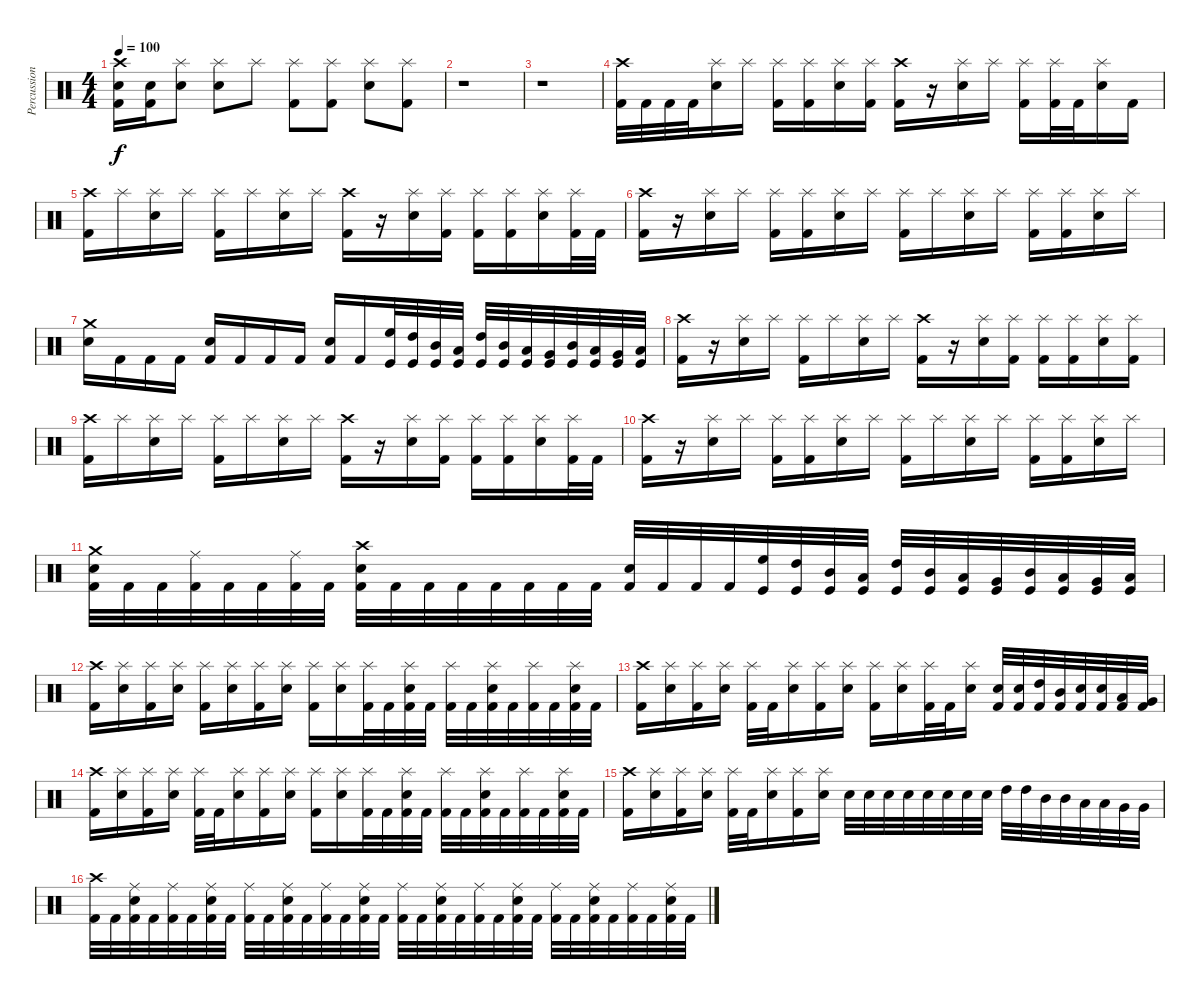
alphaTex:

\track ("Percussion" "Percussion") {instrument percussion}
\staff {score}
\articulation defaults
\ts (4 4)
\tempo 100
\clef neutral
\ks c
("Crash high (hit)" "Electric Snare (hit)" "Kick (hit) 2").16{dy f} ("Electric Snare (hit)" "Kick (hit) 2").16 ("Splash (hit)" "Electric Snare (hit)").8 ("Splash (hit)" "Electric Snare (hit)").8 "Splash (hit)".8 ("Splash (hit)" "Kick (hit) 2").8 ("Splash (hit)" "Kick (hit) 2").8 ("Splash (hit)" "Electric Snare (hit)").8 ("Splash (hit)" "Kick (hit) 2").8 |
r.1 |
r.1 |
("Kick (hit) 2" "Crash high (hit)").32 "Kick (hit) 2".32 "Kick (hit) 2".32 "Kick (hit) 2".32 ("Electric Snare (hit)" "Splash (hit)").16 "Splash (hit)".16 ("Kick (hit) 2" "Splash (hit)").16 ("Kick (hit) 2" "Splash (hit)").16 ("Electric Snare (hit)" "Splash (hit)").16 ("Kick (hit) 2" "Splash (hit)").16 ("Kick (hit) 2" "Crash high (hit)").16 r.16 ("Electric Snare (hit)" "Splash (hit)").16 "Splash (hit)".16 ("Kick (hit) 2" "Splash (hit)").16 ("Kick (hit) 2" "Splash (hit)").32 "Kick (hit) 2".32 ("Electric Snare (hit)" "Splash (hit)").16 "Kick (hit) 2".16 |
("Kick (hit) 2" "Crash high (hit)").16 "Splash (hit)".16 ("Electric Snare (hit)" "Splash (hit)").16 "Splash (hit)".16 ("Kick (hit) 2" "Splash (hit)").16 "Splash (hit)".16 ("Electric Snare (hit)" "Splash (hit)").16 "Splash (hit)".16 ("Kick (hit) 2" "Crash high (hit)").16 r.16 ("Electric Snare (hit)" "Splash (hit)").16 ("Kick (hit) 2" "Splash (hit)").16 ("Kick (hit) 2" "Splash (hit)").16 ("Kick (hit) 2" "Splash (hit)").16 ("Electric Snare (hit)" "Splash (hit)").16 ("Kick (hit) 2" "Splash (hit)").32 "Kick (hit) 2".32 |
("Kick (hit) 2" "Crash high (hit)").16 r.16 ("Electric Snare (hit)" "Splash (hit)").16 "Splash (hit)".16 ("Kick (hit) 2" "Splash (hit)").16 ("Kick (hit) 2" "Splash (hit)").16 ("Electric Snare (hit)" "Splash (hit)").16 "Splash (hit)".16 ("Kick (hit) 2" "Splash (hit)").16 "Splash (hit)".16 ("Electric Snare (hit)" "Splash (hit)").16 "Splash (hit)".16 ("Kick (hit) 2" "Splash (hit)").16 ("Kick (hit) 2" "Splash (hit)").16 ("Electric Snare (hit)" "Splash (hit)").16 "Splash (hit)".16 |
("Electric Snare (hit)" "Crash medium (hit)").16 "Kick (hit) 2".16 "Kick (hit) 2".16 "Kick (hit) 2".16 ("Electric Snare (hit)" "Kick (hit) 2").16 "Kick (hit) 2".16 "Kick (hit) 2".16 "Kick (hit) 2".16 ("Electric Snare (hit)" "Kick (hit) 2").16 "Kick (hit) 2".16 ("High Floor Tom (hit)" "Kick (hit)").32 ("High Tom (hit)" "Kick (hit)").32 ("Mid Tom (hit)" "Kick (hit)").32 ("Low Tom (hit)" "Kick (hit)").32 ("High Tom (hit)" "Kick (hit)").32 ("Mid Tom (hit)" "Kick (hit)").32 ("Low Tom (hit)" "Kick (hit)").32 ("Very Low Tom (hit)" "Kick (hit)").32 ("Mid Tom (hit)" "Kick (hit)").32 ("Low Tom (hit)" "Kick (hit)").32 ("Very Low Tom (hit)" "Kick (hit)").32 ("Low Floor Tom (hit)" "Kick (hit)").32 |
("Kick (hit) 2" "Crash high (hit)").16 r.16 ("Electric Snare (hit)" "Splash (hit)").16 "Splash (hit)".16 ("Kick (hit) 2" "Splash (hit)").16 "Splash (hit)".16 ("Electric Snare (hit)" "Splash (hit)").16 "Splash (hit)".16 ("Kick (hit) 2" "Crash high (hit)").16 r.16 ("Electric Snare (hit)" "Splash (hit)").16 ("Kick (hit) 2" "Splash (hit)").16 ("Kick (hit) 2" "Splash (hit)").16 ("Kick (hit) 2" "Splash (hit)").16 ("Electric Snare (hit)" "Splash (hit)").16 ("Kick (hit) 2" "Splash (hit)").16 |
("Kick (hit) 2" "Crash high (hit)").16 "Splash (hit)".16 ("Electric Snare (hit)" "Splash (hit)").16 "Splash (hit)".16 ("Kick (hit) 2" "Splash (hit)").16 "Splash (hit)".16 ("Electric Snare (hit)" "Splash (hit)").16 "Splash (hit)".16 ("Kick (hit) 2" "Crash high (hit)").16 r.16 ("Electric Snare (hit)" "Splash (hit)").16 ("Kick (hit) 2" "Splash (hit)").16 ("Kick (hit) 2" "Splash (hit)").16 ("Kick (hit) 2" "Splash (hit)").16 ("Electric Snare (hit)" "Splash (hit)").16 ("Kick (hit) 2" "Splash (hit)").32 "Kick (hit) 2".32 |
("Kick (hit) 2" "Crash high (hit)").16 r.16 ("Electric Snare (hit)" "Splash (hit)").16 "Splash (hit)".16 ("Kick (hit) 2" "Splash (hit)").16 ("Kick (hit) 2" "Splash (hit)").16 ("Electric Snare (hit)" "Splash (hit)").16 "Splash (hit)".16 ("Kick (hit) 2" "Splash (hit)").16 "Splash (hit)".16 ("Electric Snare (hit)" "Splash (hit)").16 "Splash (hit)".16 ("Kick (hit) 2" "Splash (hit)").16 ("Kick (hit) 2" "Splash (hit)").16 ("Electric Snare (hit)" "Splash (hit)").16 "Splash (hit)".16 |
("Crash medium (hit)" "Electric Snare (hit)" "Kick (hit) 2").32 "Kick (hit) 2".32 "Kick (hit) 2".32 ("Ride (middle)" "Kick (hit) 2").32 "Kick (hit) 2".32 "Kick (hit) 2".32 ("Ride (middle)" "Kick (hit) 2").32 "Kick (hit) 2".32 ("Crash high (hit)" "Electric Snare (hit)" "Kick (hit) 2").32 "Kick (hit) 2".32 "Kick (hit) 2".32 "Kick (hit) 2".32 "Kick (hit) 2".32 "Kick (hit) 2".32 "Kick (hit) 2".32 "Kick (hit) 2".32 ("Electric Snare (hit)" "Kick (hit) 2").32 "Kick (hit) 2".32 "Kick (hit) 2".32 "Kick (hit) 2".32 ("High Floor Tom (hit)" "Kick (hit)").32 ("High Tom (hit)" "Kick (hit)").32 ("Mid Tom (hit)" "Kick (hit)").32 ("Low Tom (hit)" "Kick (hit)").32 ("High Tom (hit)" "Kick (hit)").32 ("Mid Tom (hit)" "Kick (hit)").32 ("Low Tom (hit)" "Kick (hit)").32 ("Very Low Tom (hit)" "Kick (hit)").32 ("Mid Tom (hit)" "Kick (hit)").32 ("Low Tom (hit)" "Kick (hit)").32 ("Very Low Tom (hit)" "Kick (hit)").32 ("Low Floor Tom (hit)" "Kick (hit)").32 |
("Crash high (hit)" "Kick (hit) 2").16 ("Splash (hit)" "Electric Snare (hit)").16 ("Splash (hit)" "Kick (hit) 2").16 ("Splash (hit)" "Electric Snare (hit)").16 ("Splash (hit)" "Kick (hit) 2").16 ("Splash (hit)" "Electric Snare (hit)").16 ("Splash (hit)" "Kick (hit) 2").16 ("Splash (hit)" "Electric Snare (hit)").16 ("Splash (hit)" "Kick (hit) 2").16 ("Splash (hit)" "Electric Snare (hit)").16 ("Splash (hit)" "Kick (hit) 2").32 "Kick (hit) 2".32 ("Splash (hit)" "Electric Snare (hit)" "Kick (hit) 2").32 "Kick (hit) 2".32 ("Splash (hit)" "Kick (hit) 2").32 "Kick (hit) 2".32 ("Splash (hit)" "Electric Snare (hit)" "Kick (hit) 2").32 "Kick (hit) 2".32 ("Splash (hit)" "Kick (hit) 2").32 "Kick (hit) 2".32 ("Splash (hit)" "Electric Snare (hit)" "Kick (hit) 2").32 "Kick (hit) 2".32 |
("Crash high (hit)" "Kick (hit) 2").16 ("Splash (hit)" "Electric Snare (hit)").16 ("Splash (hit)" "Kick (hit) 2").16 ("Splash (hit)" "Electric Snare (hit)").16 ("Splash (hit)" "Kick (hit) 2").32 "Kick (hit) 2".32 ("Splash (hit)" "Electric Snare (hit)").16 ("Splash (hit)" "Kick (hit) 2").16 ("Splash (hit)" "Electric Snare (hit)").16 ("Splash (hit)" "Kick (hit) 2").16 ("Splash (hit)" "Electric Snare (hit)").16 ("Splash (hit)" "Kick (hit) 2").32 "Kick (hit) 2".32 ("Splash (hit)" "Electric Snare (hit)").16 ("Electric Snare (hit)" "Kick (hit) 2").32 ("Electric Snare (hit)" "Kick (hit) 2").32 ("High Tom (hit)" "Kick (hit) 2").32 ("Mid Tom (hit)" "Kick (hit) 2").32 ("Electric Snare (hit)" "Kick (hit) 2").32 ("Electric Snare (hit)" "Kick (hit) 2").32 ("Low Tom (hit)" "Kick (hit) 2").32 ("Very Low Tom (hit)" "Kick (hit) 2").32 |
("Crash high (hit)" "Kick (hit) 2").16 ("Splash (hit)" "Electric Snare (hit)").16 ("Splash (hit)" "Kick (hit) 2").16 ("Splash (hit)" "Electric Snare (hit)").16 ("Splash (hit)" "Kick (hit) 2").32 "Kick (hit) 2".32 ("Splash (hit)" "Electric Snare (hit)").16 ("Splash (hit)" "Kick (hit) 2").16 ("Splash (hit)" "Electric Snare (hit)").16 ("Splash (hit)" "Kick (hit) 2").16 ("Splash (hit)" "Electric Snare (hit)").16 ("Splash (hit)" "Kick (hit) 2").32 "Kick (hit) 2".32 ("Splash (hit)" "Electric Snare (hit)" "Kick (hit) 2").32 "Kick (hit) 2".32 ("Splash (hit)" "Kick (hit) 2").32 "Kick (hit) 2".32 ("Splash (hit)" "Electric Snare (hit)" "Kick (hit) 2").32 "Kick (hit) 2".32 ("Splash (hit)" "Kick (hit) 2").32 "Kick (hit) 2".32 ("Splash (hit)" "Electric Snare (hit)" "Kick (hit) 2").32 "Kick (hit) 2".32 |
("Crash high (hit)" "Kick (hit) 2").16 ("Splash (hit)" "Electric Snare (hit)").16 ("Splash (hit)" "Kick (hit) 2").16 ("Splash (hit)" "Electric Snare (hit)").16 ("Splash (hit)" "Kick (hit) 2").32 "Kick (hit) 2".32 ("Splash (hit)" "Electric Snare (hit)").16 ("Splash (hit)" "Kick (hit) 2").16 ("Splash (hit)" "Electric Snare (hit)").16 "Electric Snare (hit)".32 "Electric Snare (hit)".32 "Electric Snare (hit)".32 "Electric Snare (hit)".32 "Electric Snare (hit)".32 "Electric Snare (hit)".32 "Electric Snare (hit)".32 "Electric Snare (hit)".32 "High Tom (hit)".32 "High Tom (hit)".32 "Mid Tom (hit)".32 "Mid Tom (hit)".32 "Low Tom (hit)".32 "Low Tom (hit)".32 "Very Low Tom (hit)".32 "Very Low Tom (hit)".32 |
("Crash high (hit)" "Kick (hit) 2").32 "Kick (hit) 2".32 ("Ride (middle)" "Electric Snare (hit)" "Kick (hit) 2").32 "Kick (hit) 2".32 ("Ride (middle)" "Kick (hit) 2").32 "Kick (hit) 2".32 ("Ride (middle)" "Electric Snare (hit)" "Kick (hit) 2").32 "Kick (hit) 2".32 ("Ride (middle)" "Kick (hit) 2").32 "Kick (hit) 2".32 ("Ride (middle)" "Electric Snare (hit)" "Kick (hit) 2").32 "Kick (hit) 2".32 ("Ride (middle)" "Kick (hit) 2").32 "Kick (hit) 2".32 ("Ride (middle)" "Electric Snare (hit)" "Kick (hit) 2").32 "Kick (hit) 2".32 ("Ride (middle)" "Kick (hit) 2").32 "Kick (hit) 2".32 ("Ride (middle)" "Electric Snare (hit)" "Kick (hit) 2").32 "Kick (hit) 2".32 ("Ride (middle)" "Kick (hit) 2").32 "Kick (hit) 2".32 ("Ride (middle)" "Electric Snare (hit)" "Kick (hit) 2").32 "Kick (hit) 2".32 ("Ride (middle)" "Kick (hit) 2").32 "Kick (hit) 2".32 ("Ride (middle)" "Electric Snare (hit)" "Kick (hit) 2").32 "Kick (hit) 2".32 ("Ride (middle)" "Kick (hit) 2").32 "Kick (hit) 2".32 ("Ride (middle)" "Electric Snare (hit)" "Kick (hit) 2").32 "Kick (hit) 2".32
